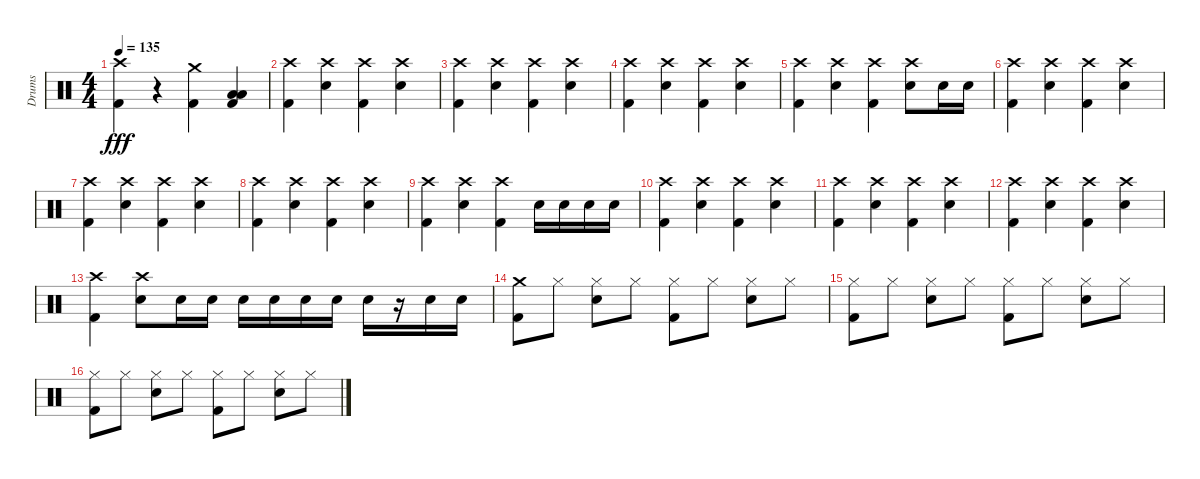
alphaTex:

\track ("Drums" "Drums") {instrument percussion}
\staff {score}
\articulation defaults
\ts (4 4)
\tempo 135
\clef neutral
\ks c
("Crash high (hit)" "Kick (hit) 2").4{dy fff} r.4 ("Crash medium (hit)" "Kick (hit) 2").4 ("Low Tom (hit)" "Low Floor Tom (hit)" "Kick (hit) 2").4 |
("Crash high (hit)" "Kick (hit) 2").4 ("Crash high (hit)" "Snare (hit) 2").4 ("Crash high (hit)" "Kick (hit) 2").4 ("Crash high (hit)" "Snare (hit) 2").4 |
("Crash high (hit)" "Kick (hit) 2").4 ("Crash high (hit)" "Snare (hit) 2").4 ("Crash high (hit)" "Kick (hit) 2").4 ("Crash high (hit)" "Snare (hit) 2").4 |
("Crash high (hit)" "Kick (hit) 2").4 ("Crash high (hit)" "Snare (hit) 2").4 ("Crash high (hit)" "Kick (hit) 2").4 ("Crash high (hit)" "Snare (hit) 2").4 |
("Crash high (hit)" "Kick (hit) 2").4 ("Crash high (hit)" "Snare (hit) 2").4 ("Crash high (hit)" "Kick (hit) 2").4 ("Crash high (hit)" "Snare (hit) 2").8 "Snare (hit) 2".16 "Snare (hit) 2".16 |
("Crash high (hit)" "Kick (hit) 2").4 ("Crash high (hit)" "Snare (hit) 2").4 ("Crash high (hit)" "Kick (hit) 2").4 ("Crash high (hit)" "Snare (hit) 2").4 |
("Crash high (hit)" "Kick (hit) 2").4 ("Crash high (hit)" "Snare (hit) 2").4 ("Crash high (hit)" "Kick (hit) 2").4 ("Crash high (hit)" "Snare (hit) 2").4 |
("Crash high (hit)" "Kick (hit) 2").4 ("Crash high (hit)" "Snare (hit) 2").4 ("Crash high (hit)" "Kick (hit) 2").4 ("Crash high (hit)" "Snare (hit) 2").4 |
("Crash high (hit)" "Kick (hit) 2").4 ("Crash high (hit)" "Snare (hit) 2").4 ("Crash high (hit)" "Kick (hit) 2").4 "Snare (hit) 2".16 "Snare (hit) 2".16 "Snare (hit) 2".16 "Snare (hit) 2".16 |
("Crash high (hit)" "Kick (hit) 2").4 ("Crash high (hit)" "Snare (hit) 2").4 ("Crash high (hit)" "Kick (hit) 2").4 ("Crash high (hit)" "Snare (hit) 2").4 |
("Crash high (hit)" "Kick (hit) 2").4 ("Crash high (hit)" "Snare (hit) 2").4 ("Crash high (hit)" "Kick (hit) 2").4 ("Crash high (hit)" "Snare (hit) 2").4 |
("Crash high (hit)" "Kick (hit) 2").4 ("Crash high (hit)" "Snare (hit) 2").4 ("Crash high (hit)" "Kick (hit) 2").4 ("Crash high (hit)" "Snare (hit) 2").4 |
("Crash high (hit)" "Kick (hit) 2").4 ("Crash high (hit)" "Snare (hit) 2").8 "Snare (hit) 2".16 "Snare (hit) 2".16 "Snare (hit) 2".16 "Snare (hit) 2".16 "Snare (hit) 2".16 "Snare (hit) 2".16 "Snare (hit) 2".16 r.16 "Snare (hit) 2".16 "Snare (hit) 2".16 |
("Crash medium (hit)" "Kick (hit) 2").8 "Hi-Hat (closed)".8 ("Hi-Hat (closed)" "Snare (hit) 2").8 "Hi-Hat (closed)".8 ("Hi-Hat (closed)" "Kick (hit) 2").8 "Hi-Hat (closed)".8 ("Hi-Hat (closed)" "Snare (hit) 2").8 "Hi-Hat (closed)".8 |
("Hi-Hat (closed)" "Kick (hit) 2").8 "Hi-Hat (closed)".8 ("Hi-Hat (closed)" "Snare (hit) 2").8 "Hi-Hat (closed)".8 ("Hi-Hat (closed)" "Kick (hit) 2").8 "Hi-Hat (closed)".8 ("Hi-Hat (closed)" "Snare (hit) 2").8 "Hi-Hat (closed)".8 |
("Hi-Hat (closed)" "Kick (hit) 2").8 "Hi-Hat (closed)".8 ("Hi-Hat (closed)" "Snare (hit) 2").8 "Hi-Hat (closed)".8 ("Hi-Hat (closed)" "Kick (hit) 2").8 "Hi-Hat (closed)".8 ("Hi-Hat (closed)" "Snare (hit) 2").8 "Hi-Hat (closed)".8
